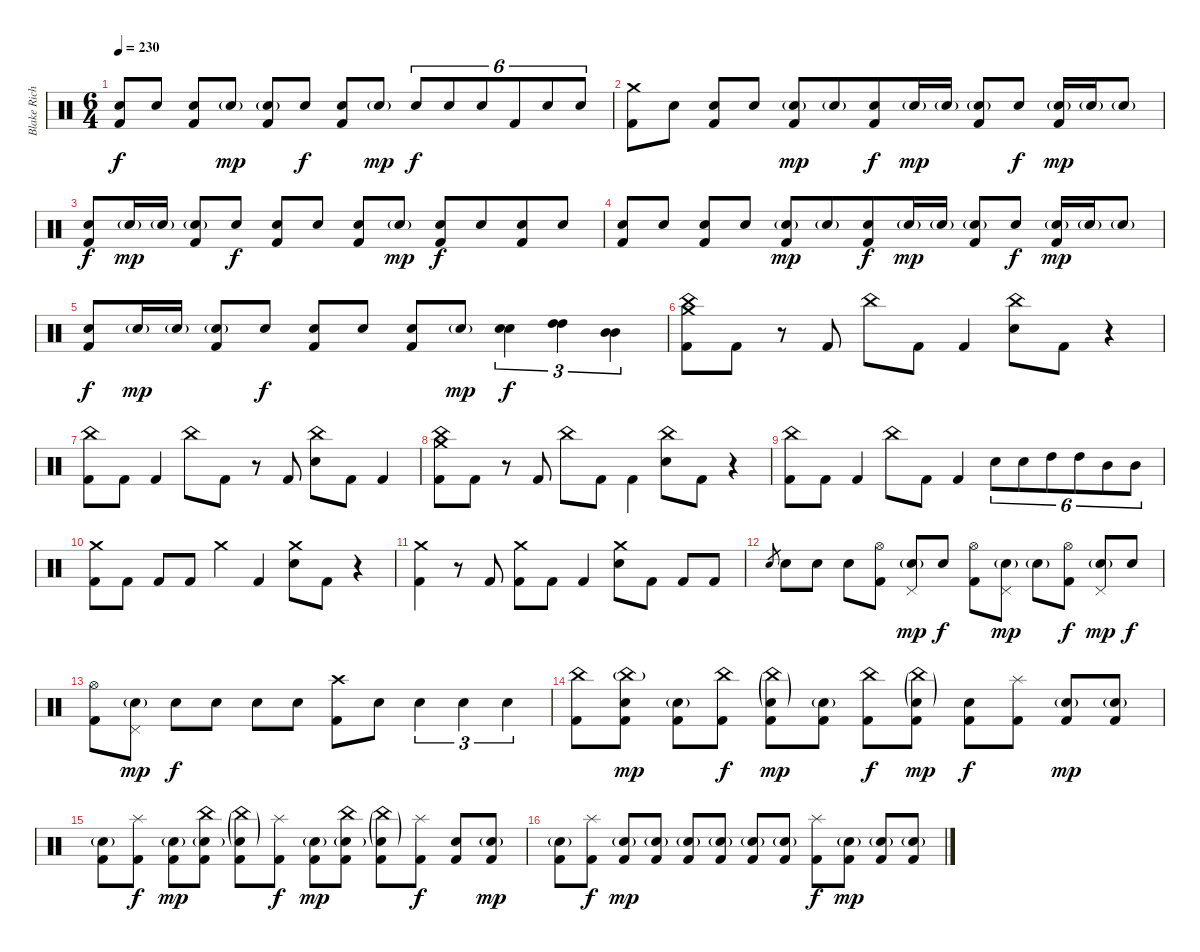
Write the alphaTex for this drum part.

\track ("Blake Richardson - Drums" "Blake Rich") {instrument percussion}
\staff {score}
\articulation defaults
\ts (6 4)
\tempo 230
\clef neutral
\ks c
("Electric Snare (hit)" "Kick (hit) 2").8{dy f} "Electric Snare (hit)".8 ("Electric Snare (hit)" "Kick (hit) 2").8 "Electric Snare (hit)"{g}.8{dy mp} ("Electric Snare (hit)"{g} "Kick (hit) 2").8 "Electric Snare (hit)".8{dy f} ("Electric Snare (hit)" "Kick (hit) 2").8 "Electric Snare (hit)"{g}.8{dy mp} "Electric Snare (hit)".8{tu (6 4) dy f} "Electric Snare (hit)".8{tu (6 4)} "Electric Snare (hit)".8{tu (6 4)} "Kick (hit) 2".8{tu (6 4)} "Electric Snare (hit)".8{tu (6 4)} "Electric Snare (hit)".8{tu (6 4)} |
("Crash medium (hit)" "Kick (hit) 2").8 "Electric Snare (hit)".8 ("Electric Snare (hit)" "Kick (hit) 2").8 "Electric Snare (hit)".8 ("Electric Snare (hit)"{g} "Kick (hit) 2").8{dy mp} "Electric Snare (hit)"{g}.8{beam merge} ("Electric Snare (hit)" "Kick (hit) 2").8{dy f} "Electric Snare (hit)"{g}.16{dy mp} "Electric Snare (hit)"{g}.16{beam split} ("Electric Snare (hit)"{g} "Kick (hit) 2").8 "Electric Snare (hit)".8{dy f} ("Electric Snare (hit)"{g} "Kick (hit) 2").16{dy mp} "Electric Snare (hit)"{g}.16 "Electric Snare (hit)"{g}.8 |
("Electric Snare (hit)" "Kick (hit) 2").8{dy f} "Electric Snare (hit)"{g}.16{dy mp} "Electric Snare (hit)"{g}.16 ("Electric Snare (hit)"{g} "Kick (hit) 2").8 "Electric Snare (hit)".8{dy f beam split} ("Electric Snare (hit)" "Kick (hit) 2").8 "Electric Snare (hit)".8 ("Electric Snare (hit)" "Kick (hit) 2").8 "Electric Snare (hit)"{g}.8{dy mp} ("Electric Snare (hit)" "Kick (hit) 2").8{dy f} "Electric Snare (hit)".8{beam merge} ("Electric Snare (hit)" "Kick (hit) 2").8 "Electric Snare (hit)".8 |
("Electric Snare (hit)" "Kick (hit) 2").8 "Electric Snare (hit)".8 ("Electric Snare (hit)" "Kick (hit) 2").8 "Electric Snare (hit)".8 ("Electric Snare (hit)"{g} "Kick (hit) 2").8{dy mp} "Electric Snare (hit)"{g}.8{beam merge} ("Electric Snare (hit)" "Kick (hit) 2").8{dy f} "Electric Snare (hit)"{g}.16{dy mp} "Electric Snare (hit)"{g}.16{beam split} ("Electric Snare (hit)"{g} "Kick (hit) 2").8 "Electric Snare (hit)".8{dy f} ("Electric Snare (hit)"{g} "Kick (hit) 2").16{dy mp} "Electric Snare (hit)"{g}.16 "Electric Snare (hit)"{g}.8 |
("Electric Snare (hit)" "Kick (hit) 2").8{dy f} "Electric Snare (hit)"{g}.16{dy mp} "Electric Snare (hit)"{g}.16 ("Electric Snare (hit)"{g} "Kick (hit) 2").8 "Electric Snare (hit)".8{dy f beam split} ("Electric Snare (hit)" "Kick (hit) 2").8 "Electric Snare (hit)".8 ("Electric Snare (hit)" "Kick (hit) 2").8 "Electric Snare (hit)"{g}.8{dy mp} ("Electric Snare (hit)" "Electric Snare (hit)").4{tu (3 2) dy f} ("High Tom (hit)" "High Tom (hit)").4{tu (3 2)} ("Mid Tom (hit)" "Mid Tom (hit)").4{tu (3 2)} |
("China (hit)" "Crash medium (hit)" "Kick (hit) 2").8 "Kick (hit) 2".8 r.8 "Kick (hit) 2".8{beam split} "China (hit)".8 "Kick (hit) 2".8 "Kick (hit) 2".4 ("China (hit)" "Electric Snare (hit)").8 "Kick (hit) 2".8 r.4 |
("China (hit)" "Kick (hit) 2").8 "Kick (hit) 2".8 "Kick (hit) 2".4 "China (hit)".8 "Kick (hit) 2".8 r.8 "Kick (hit) 2".8{beam split} ("China (hit)" "Electric Snare (hit)").8 "Kick (hit) 2".8 "Kick (hit) 2".4 |
("China (hit)" "Crash medium (hit)" "Kick (hit) 2").8 "Kick (hit) 2".8 r.8 "Kick (hit) 2".8{beam split} "China (hit)".8 "Kick (hit) 2".8{beam merge} "Kick (hit) 2".4 ("China (hit)" "Electric Snare (hit)").8 "Kick (hit) 2".8 r.4 |
("China (hit)" "Kick (hit) 2").8 "Kick (hit) 2".8 "Kick (hit) 2".4 "China (hit)".8 "Kick (hit) 2".8 "Kick (hit) 2".4 "Electric Snare (hit)".8{tu (6 4)} "Electric Snare (hit)".8{tu (6 4)} "High Tom (hit)".8{tu (6 4)} "High Tom (hit)".8{tu (6 4)} "Mid Tom (hit)".8{tu (6 4)} "Mid Tom (hit)".8{tu (6 4)} |
("Crash medium (hit)" "Kick (hit) 2").8 "Kick (hit) 2".8 "Kick (hit) 2".8 "Kick (hit) 2".8 "Crash medium (hit)".4 "Kick (hit) 2".4 ("Crash medium (hit)" "Electric Snare (hit)").8 "Kick (hit) 2".8 r.4 |
("Crash medium (hit)" "Kick (hit) 2").4 r.8 "Kick (hit) 2".8{beam split} ("Crash medium (hit)" "Kick (hit) 2").8 "Kick (hit) 2".8 "Kick (hit) 2".4 ("Crash medium (hit)" "Electric Snare (hit)").8 "Kick (hit) 2".8 "Kick (hit) 2".8 "Kick (hit) 2".8 |
"Electric Snare (hit)".8{gr} "Electric Snare (hit)".8 "Electric Snare (hit)".8 "Electric Snare (hit)".8 ("Hi-Hat (open)" "Kick (hit) 2").8 ("Electric Snare (hit)"{g} "Pedal Hi-Hat (hit)").8{dy mp} "Electric Snare (hit)".8{dy f} ("Hi-Hat (open)" "Kick (hit) 2").8 ("Electric Snare (hit)"{g} "Pedal Hi-Hat (hit)").8{dy mp} "Electric Snare (hit)"{g}.8 ("Hi-Hat (open)" "Kick (hit) 2").8{dy f} ("Electric Snare (hit)"{g} "Pedal Hi-Hat (hit)").8{dy mp} "Electric Snare (hit)".8{dy f} |
("Hi-Hat (open)" "Kick (hit) 2").8 ("Electric Snare (hit)"{g} "Pedal Hi-Hat (hit)").8{dy mp} "Electric Snare (hit)".8{dy f} "Electric Snare (hit)".8 "Electric Snare (hit)".8 "Electric Snare (hit)".8 ("Crash high (hit)" "Kick (hit) 2").8 "Electric Snare (hit)".8 "Electric Snare (hit)".4{tu (3 2)} "Electric Snare (hit)".4{tu (3 2)} "Electric Snare (hit)".4{tu (3 2)} |
("China (hit)" "Kick (hit) 2").8 ("China (hit)"{g} "Electric Snare (hit)" "Kick (hit) 2").8{dy mp} ("Electric Snare (hit)"{g} "Kick (hit) 2").8 ("China (hit)" "Kick (hit) 2").8{dy f} ("China (hit)"{g} "Electric Snare (hit)"{g} "Kick (hit) 2").8{dy mp} ("Electric Snare (hit)"{g} "Kick (hit) 2").8 ("China (hit)" "Kick (hit) 2").8{dy f} ("China (hit)"{g} "Electric Snare (hit)"{g} "Kick (hit) 2").8{dy mp} ("Electric Snare (hit)" "Kick (hit) 2").8{dy f} ("Splash (hit)" "Kick (hit) 2").8 ("Electric Snare (hit)"{g} "Kick (hit) 2").8{dy mp} ("Electric Snare (hit)"{g} "Kick (hit) 2").8 |
("Electric Snare (hit)"{g} "Kick (hit) 2").8 ("Splash (hit)" "Kick (hit) 2").8{dy f} ("Electric Snare (hit)"{g} "Kick (hit) 2").8{dy mp} ("China (hit)" "Electric Snare (hit)"{g} "Kick (hit) 2").8 ("China (hit)"{g} "Electric Snare (hit)"{g} "Kick (hit) 2").8 ("Splash (hit)" "Kick (hit) 2").8{dy f} ("Electric Snare (hit)"{g} "Kick (hit) 2").8{dy mp} ("China (hit)" "Electric Snare (hit)"{g} "Kick (hit) 2").8 ("China (hit)"{g} "Electric Snare (hit)"{g} "Kick (hit) 2").8 ("Splash (hit)" "Kick (hit) 2").8{dy f} ("Electric Snare (hit)" "Kick (hit) 2").8 ("Electric Snare (hit)"{g} "Kick (hit) 2").8{dy mp} |
("Electric Snare (hit)"{g} "Kick (hit) 2").8 ("Splash (hit)" "Kick (hit) 2").8{dy f} ("Electric Snare (hit)"{g} "Kick (hit) 2").8{dy mp} ("Electric Snare (hit)"{g} "Kick (hit) 2").8 ("Electric Snare (hit)"{g} "Kick (hit) 2").8 ("Electric Snare (hit)"{g} "Kick (hit) 2").8 ("Electric Snare (hit)"{g} "Kick (hit) 2").8 ("Electric Snare (hit)"{g} "Kick (hit) 2").8 ("Splash (hit)" "Kick (hit) 2").8{dy f} ("Electric Snare (hit)"{g} "Kick (hit) 2").8{dy mp} ("Electric Snare (hit)"{g} "Kick (hit) 2").8 ("Electric Snare (hit)"{g} "Kick (hit) 2").8
